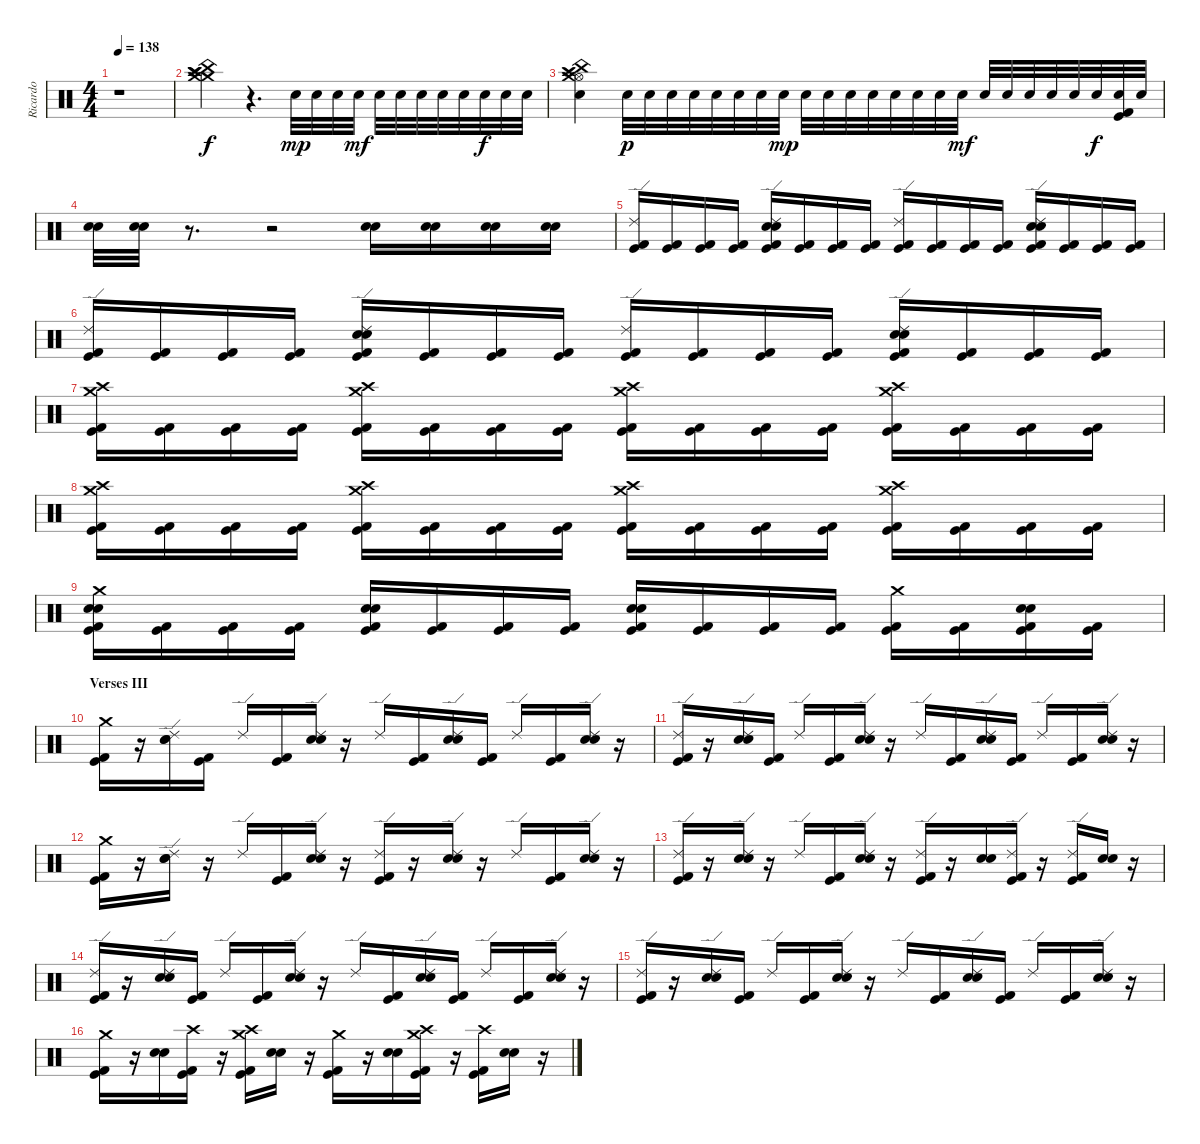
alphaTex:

\track ("Ricardo" "Ricardo") {instrument percussion}
\staff {score}
\articulation defaults
\ts (4 4)
\tempo 138
\clef neutral
\ks c
r.1{dy f} |
("China (hit)" "Splash (hit)" "Crash medium (hit)" "Crash medium (hit)" "Crash high (hit)" "Crash high (hit)").4 r.4{d} "Electric Snare (hit)".32{dy mp} "Electric Snare (hit)".32 "Electric Snare (hit)".32 "Electric Snare (hit)".32{dy mf} "Electric Snare (hit)".32 "Electric Snare (hit)".32 "Electric Snare (hit)".32 "Electric Snare (hit)".32 "Electric Snare (hit)".32 "Electric Snare (hit)".32{dy f} "Electric Snare (hit)".32 "Electric Snare (hit)".32 |
("Hi-Hat (open)" "Crash high (hit)" "China (hit)" "Splash (hit)" "Crash medium (hit)" "Electric Snare (hit)").4 "Electric Snare (hit)".32{dy p} "Electric Snare (hit)".32 "Electric Snare (hit)".32 "Electric Snare (hit)".32 "Electric Snare (hit)".32 "Electric Snare (hit)".32 "Electric Snare (hit)".32 "Electric Snare (hit)".32{dy mp} "Electric Snare (hit)".32 "Electric Snare (hit)".32 "Electric Snare (hit)".32 "Electric Snare (hit)".32 "Electric Snare (hit)".32 "Electric Snare (hit)".32 "Electric Snare (hit)".32 "Electric Snare (hit)".32{dy mf} "Electric Snare (hit)".32 "Electric Snare (hit)".32 "Electric Snare (hit)".32 "Electric Snare (hit)".32 "Electric Snare (hit)".32 "Electric Snare (hit)".32{dy f} ("Kick (hit) 2" "Kick (hit)" "Electric Snare (hit)").32 "Electric Snare (hit)".32 |
("Electric Snare (hit)" "Snare (hit) 2").32 ("Electric Snare (hit)" "Snare (hit) 2").32 r.8{d} r.2 ("Electric Snare (hit)" "Snare (hit) 2").16 ("Electric Snare (hit)" "Snare (hit) 2").16 ("Electric Snare (hit)" "Snare (hit) 2").16 ("Snare (hit) 2" "Electric Snare (hit)").16 |
("Ride (edge) 2" "Kick (hit) 2" "Kick (hit)").16 ("Kick (hit) 2" "Kick (hit)").16 ("Kick (hit) 2" "Kick (hit)").16 ("Kick (hit) 2" "Kick (hit)").16 ("Snare (hit) 2" "Electric Snare (hit)" "Ride (edge) 2" "Kick (hit) 2" "Kick (hit)").16 ("Kick (hit) 2" "Kick (hit)").16 ("Kick (hit) 2" "Kick (hit)").16 ("Kick (hit) 2" "Kick (hit)").16 ("Ride (edge) 2" "Kick (hit) 2" "Kick (hit)").16 ("Kick (hit) 2" "Kick (hit)").16 ("Kick (hit) 2" "Kick (hit)").16 ("Kick (hit) 2" "Kick (hit)").16 ("Snare (hit) 2" "Electric Snare (hit)" "Ride (edge) 2" "Kick (hit) 2" "Kick (hit)").16 ("Kick (hit) 2" "Kick (hit)").16 ("Kick (hit) 2" "Kick (hit)").16 ("Kick (hit) 2" "Kick (hit)").16 |
("Ride (edge) 2" "Kick (hit) 2" "Kick (hit)").16 ("Kick (hit) 2" "Kick (hit)").16 ("Kick (hit) 2" "Kick (hit)").16 ("Kick (hit) 2" "Kick (hit)").16 ("Snare (hit) 2" "Electric Snare (hit)" "Ride (edge) 2" "Kick (hit) 2" "Kick (hit)").16 ("Kick (hit) 2" "Kick (hit)").16 ("Kick (hit) 2" "Kick (hit)").16 ("Kick (hit) 2" "Kick (hit)").16 ("Ride (edge) 2" "Kick (hit) 2" "Kick (hit)").16 ("Kick (hit) 2" "Kick (hit)").16 ("Kick (hit) 2" "Kick (hit)").16 ("Kick (hit) 2" "Kick (hit)").16 ("Snare (hit) 2" "Electric Snare (hit)" "Ride (edge) 2" "Kick (hit) 2" "Kick (hit)").16 ("Kick (hit) 2" "Kick (hit)").16 ("Kick (hit) 2" "Kick (hit)").16 ("Kick (hit) 2" "Kick (hit)").16 |
("Crash medium (hit)" "Crash high (hit)" "Kick (hit) 2" "Kick (hit)").16 ("Kick (hit) 2" "Kick (hit)").16 ("Kick (hit) 2" "Kick (hit)").16 ("Kick (hit) 2" "Kick (hit)").16 ("Crash high (hit)" "Crash medium (hit)" "Kick (hit) 2" "Kick (hit)").16 ("Kick (hit) 2" "Kick (hit)").16 ("Kick (hit) 2" "Kick (hit)").16 ("Kick (hit) 2" "Kick (hit)").16 ("Crash high (hit)" "Crash medium (hit)" "Kick (hit) 2" "Kick (hit)").16 ("Kick (hit) 2" "Kick (hit)").16 ("Kick (hit) 2" "Kick (hit)").16 ("Kick (hit) 2" "Kick (hit)").16 ("Crash high (hit)" "Crash medium (hit)" "Kick (hit) 2" "Kick (hit)").16 ("Kick (hit) 2" "Kick (hit)").16 ("Kick (hit) 2" "Kick (hit)").16 ("Kick (hit) 2" "Kick (hit)").16 |
("Crash medium (hit)" "Crash high (hit)" "Kick (hit) 2" "Kick (hit)").16 ("Kick (hit) 2" "Kick (hit)").16 ("Kick (hit) 2" "Kick (hit)").16 ("Kick (hit) 2" "Kick (hit)").16 ("Crash medium (hit)" "Crash high (hit)" "Kick (hit) 2" "Kick (hit)").16 ("Kick (hit) 2" "Kick (hit)").16 ("Kick (hit) 2" "Kick (hit)").16 ("Kick (hit) 2" "Kick (hit)").16 ("Crash medium (hit)" "Crash high (hit)" "Kick (hit) 2" "Kick (hit)").16 ("Kick (hit) 2" "Kick (hit)").16 ("Kick (hit) 2" "Kick (hit)").16 ("Kick (hit) 2" "Kick (hit)").16 ("Crash medium (hit)" "Crash high (hit)" "Kick (hit) 2" "Kick (hit)").16 ("Kick (hit) 2" "Kick (hit)").16 ("Kick (hit) 2" "Kick (hit)").16 ("Kick (hit) 2" "Kick (hit)").16 |
("Snare (hit) 2" "Electric Snare (hit)" "Crash medium (hit)" "Kick (hit) 2" "Kick (hit)").16 ("Kick (hit) 2" "Kick (hit)").16 ("Kick (hit) 2" "Kick (hit)").16 ("Kick (hit) 2" "Kick (hit)").16 ("Snare (hit) 2" "Electric Snare (hit)" "Kick (hit) 2" "Kick (hit)").16 ("Kick (hit) 2" "Kick (hit)").16 ("Kick (hit) 2" "Kick (hit)").16 ("Kick (hit) 2" "Kick (hit)").16 ("Snare (hit) 2" "Electric Snare (hit)" "Kick (hit) 2" "Kick (hit)").16 ("Kick (hit) 2" "Kick (hit)").16 ("Kick (hit) 2" "Kick (hit)").16 ("Kick (hit) 2" "Kick (hit)").16 ("Crash medium (hit)" "Kick (hit) 2" "Kick (hit)").16 ("Kick (hit) 2" "Kick (hit)").16 ("Electric Snare (hit)" "Snare (hit) 2" "Kick (hit) 2" "Kick (hit)").16 ("Kick (hit) 2" "Kick (hit)").16 |
\section ("" "Verses III")
("Crash medium (hit)" "Kick (hit) 2" "Kick (hit)").16 r.16 ("Ride (edge) 2" "Electric Snare (hit)" "Snare (hit) 2").16 ("Kick (hit) 2" "Kick (hit)").16 "Ride (edge) 2".16 ("Kick (hit) 2" "Kick (hit)").16 ("Ride (edge) 2" "Electric Snare (hit)" "Snare (hit) 2").16 r.16 "Ride (edge) 2".16 ("Kick (hit) 2" "Kick (hit)").16 ("Snare (hit) 2" "Electric Snare (hit)" "Ride (edge) 2").16 ("Kick (hit) 2" "Kick (hit)").16 "Ride (edge) 2".16 ("Kick (hit) 2" "Kick (hit)").16 ("Ride (edge) 2" "Electric Snare (hit)" "Snare (hit) 2").16 r.16 |
("Ride (edge) 2" "Kick (hit) 2" "Kick (hit)").16 r.16 ("Electric Snare (hit)" "Snare (hit) 2" "Ride (edge) 2").16 ("Kick (hit) 2" "Kick (hit)").16 "Ride (edge) 2".16 ("Kick (hit) 2" "Kick (hit)").16 ("Electric Snare (hit)" "Snare (hit) 2" "Ride (edge) 2").16 r.16 "Ride (edge) 2".16 ("Kick (hit) 2" "Kick (hit)").16 ("Snare (hit) 2" "Electric Snare (hit)" "Ride (edge) 2").16 ("Kick (hit)" "Kick (hit) 2").16 "Ride (edge) 2".16 ("Kick (hit) 2" "Kick (hit)").16 ("Electric Snare (hit)" "Snare (hit) 2" "Ride (edge) 2").16 r.16 |
("Crash medium (hit)" "Kick (hit) 2" "Kick (hit)").16 r.16 ("Electric Snare (hit)" "Snare (hit) 2" "Ride (edge) 2").16 r.16 "Ride (edge) 2".16 ("Kick (hit) 2" "Kick (hit)").16 ("Electric Snare (hit)" "Snare (hit) 2" "Ride (edge) 2").16 r.16 ("Ride (edge) 2" "Kick (hit) 2" "Kick (hit)").16 r.16 ("Electric Snare (hit)" "Snare (hit) 2" "Ride (edge) 2").16 r.16 "Ride (edge) 2".16 ("Kick (hit) 2" "Kick (hit)").16 ("Electric Snare (hit)" "Snare (hit) 2" "Ride (edge) 2").16 r.16 |
("Kick (hit) 2" "Ride (edge) 2" "Kick (hit)").16 r.16 ("Electric Snare (hit)" "Snare (hit) 2" "Ride (edge) 2").16 r.16 "Ride (edge) 2".16 ("Kick (hit) 2" "Kick (hit)").16 ("Electric Snare (hit)" "Snare (hit) 2" "Ride (edge) 2").16 r.16 ("Ride (edge) 2" "Kick (hit) 2" "Kick (hit)").16 r.16 ("Electric Snare (hit)" "Snare (hit) 2").16 ("Ride (edge) 2" "Kick (hit) 2" "Kick (hit)").16 r.16 ("Ride (edge) 2" "Kick (hit) 2" "Kick (hit)").16 ("Electric Snare (hit)" "Snare (hit) 2").16 r.16 |
("Ride (edge) 2" "Kick (hit) 2" "Kick (hit)").16 r.16 ("Electric Snare (hit)" "Snare (hit) 2" "Ride (edge) 2").16 ("Kick (hit) 2" "Kick (hit)").16 "Ride (edge) 2".16 ("Kick (hit) 2" "Kick (hit)").16 ("Electric Snare (hit)" "Snare (hit) 2" "Ride (edge) 2").16 r.16 "Ride (edge) 2".16 ("Kick (hit) 2" "Kick (hit)").16 ("Electric Snare (hit)" "Snare (hit) 2" "Ride (edge) 2").16 ("Kick (hit) 2" "Kick (hit)").16 "Ride (edge) 2".16 ("Kick (hit) 2" "Kick (hit)").16 ("Electric Snare (hit)" "Snare (hit) 2" "Ride (edge) 2").16 r.16 |
("Ride (edge) 2" "Kick (hit) 2" "Kick (hit)").16 r.16 ("Electric Snare (hit)" "Snare (hit) 2" "Ride (edge) 2").16 ("Kick (hit) 2" "Kick (hit)").16 "Ride (edge) 2".16 ("Kick (hit) 2" "Kick (hit)").16 ("Electric Snare (hit)" "Snare (hit) 2" "Ride (edge) 2").16 r.16 "Ride (edge) 2".16 ("Kick (hit) 2" "Kick (hit)").16 ("Electric Snare (hit)" "Snare (hit) 2" "Ride (edge) 2").16 ("Kick (hit) 2" "Kick (hit)").16 "Ride (edge) 2".16 ("Kick (hit) 2" "Kick (hit)").16 ("Electric Snare (hit)" "Snare (hit) 2" "Ride (edge) 2").16 r.16 |
("Crash medium (hit)" "Kick (hit) 2" "Kick (hit)").16 r.16 ("Electric Snare (hit)" "Snare (hit) 2").16 ("Crash high (hit)" "Kick (hit)" "Kick (hit) 2").16 r.16 ("Crash high (hit)" "Crash medium (hit)" "Kick (hit) 2" "Kick (hit)").16 ("Electric Snare (hit)" "Snare (hit) 2").16 r.16 ("Crash medium (hit)" "Kick (hit) 2" "Kick (hit)").16 r.16 ("Electric Snare (hit)" "Snare (hit) 2").16 ("Crash medium (hit)" "Crash high (hit)" "Kick (hit) 2" "Kick (hit)").16 r.16 ("Crash high (hit)" "Kick (hit) 2" "Kick (hit)").16 ("Electric Snare (hit)" "Snare (hit) 2").16 r.16
